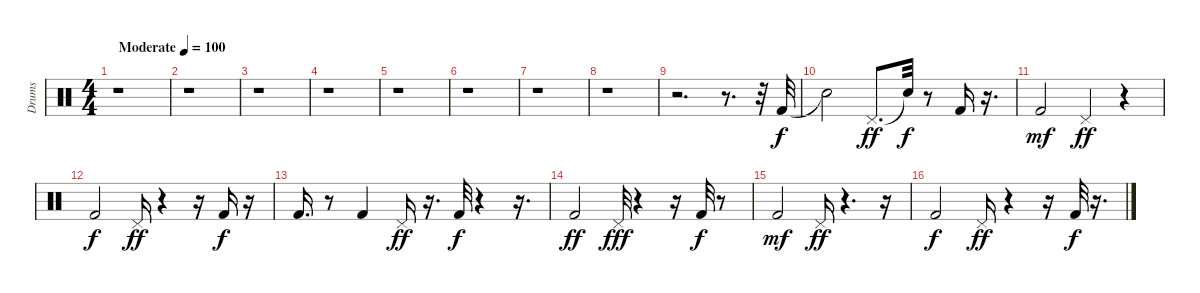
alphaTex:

\track ("Drums" "Drums") {instrument percussion}
\staff {score}
\articulation defaults
\ts (4 4)
\tempo (100 "Moderate")
\clef neutral
\ks c
r.1{dy f} |
r.1 |
r.1 |
r.1 |
r.1 |
r.1 |
r.1 |
r.1 |
r.2{d} r.8{d} r.32 "Kick (hit) 2".32 |
"Snare (hit)"{t}.2 "Pedal Hi-Hat (hit)".8{d dy ff} "Snare (hit)"{t}.32{dy f} r.8 "Kick (hit) 2".16 r.16{d} |
"Kick (hit) 2".2{dy mf} "Pedal Hi-Hat (hit)".4{dy ff} r.4 |
"Kick (hit) 2".2{dy f} "Pedal Hi-Hat (hit)".16{dy ff} r.4 r.16 "Kick (hit) 2".16{dy f} r.16 |
"Kick (hit) 2".16{d} r.8 "Kick (hit) 2".4 "Pedal Hi-Hat (hit)".16{dy ff} r.16{d} "Kick (hit) 2".32{dy f} r.4 r.16{d} |
"Kick (hit) 2".2{dy ff} "Pedal Hi-Hat (hit)".32{dy fff} r.4 r.16 "Kick (hit) 2".32{dy f} r.8 |
"Kick (hit) 2".2{dy mf} "Pedal Hi-Hat (hit)".16{dy ff} r.4{d} r.16 |
"Kick (hit) 2".2{dy f} "Pedal Hi-Hat (hit)".16{dy ff} r.4 r.16 "Kick (hit) 2".32{dy f} r.16{d}
